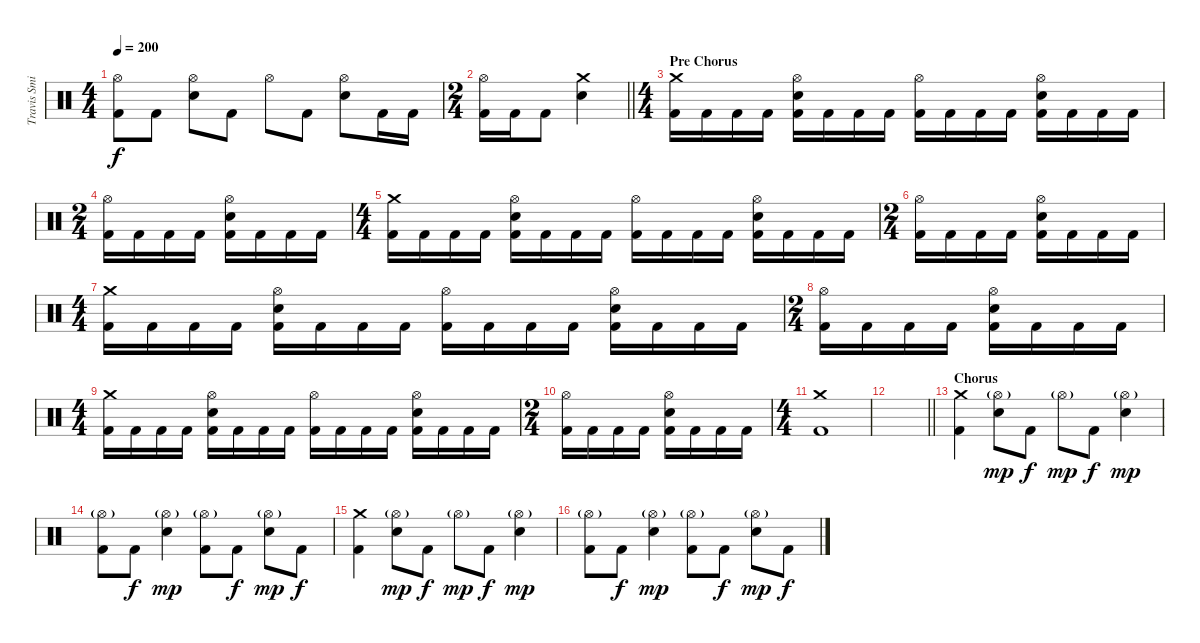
\track ("Travis Smith" "Travis Smi") {instrument percussion}
\staff {score}
\articulation defaults
\ts (4 4)
\tempo 200
\clef neutral
\ks c
("Hi-Hat (open)" "Kick (hit) 2").8{dy f} "Kick (hit) 2".8 ("Hi-Hat (open)" "Electric Snare (hit)").8 "Kick (hit) 2".8 "Hi-Hat (open)".8 "Kick (hit) 2".8 ("Hi-Hat (open)" "Electric Snare (hit)").8 "Kick (hit) 2".16 "Kick (hit) 2".16 |
\ts (2 4)
\barLineRight lightlight
("Hi-Hat (open)" "Kick (hit) 2").16 "Kick (hit) 2".16 "Kick (hit) 2".8 ("Crash medium (hit)" "Electric Snare (hit)").4 |
\ts (4 4)
\section ("" "Pre Chorus")
("Crash medium (hit)" "Kick (hit) 2").16{volume 16} "Kick (hit) 2".16 "Kick (hit) 2".16 "Kick (hit) 2".16 ("Hi-Hat (open)" "Electric Snare (hit)" "Kick (hit) 2").16 "Kick (hit) 2".16 "Kick (hit) 2".16 "Kick (hit) 2".16 ("Hi-Hat (open)" "Kick (hit) 2").16 "Kick (hit) 2".16 "Kick (hit) 2".16 "Kick (hit) 2".16 ("Hi-Hat (open)" "Electric Snare (hit)" "Kick (hit) 2").16 "Kick (hit) 2".16 "Kick (hit) 2".16 "Kick (hit) 2".16 |
\ts (2 4)
("Hi-Hat (open)" "Kick (hit) 2").16 "Kick (hit) 2".16 "Kick (hit) 2".16 "Kick (hit) 2".16 ("Hi-Hat (open)" "Electric Snare (hit)" "Kick (hit) 2").16 "Kick (hit) 2".16 "Kick (hit) 2".16 "Kick (hit) 2".16 |
\ts (4 4)
("Crash medium (hit)" "Kick (hit) 2").16{volume 16} "Kick (hit) 2".16 "Kick (hit) 2".16 "Kick (hit) 2".16 ("Hi-Hat (open)" "Electric Snare (hit)" "Kick (hit) 2").16 "Kick (hit) 2".16 "Kick (hit) 2".16 "Kick (hit) 2".16 ("Hi-Hat (open)" "Kick (hit) 2").16 "Kick (hit) 2".16 "Kick (hit) 2".16 "Kick (hit) 2".16 ("Hi-Hat (open)" "Electric Snare (hit)" "Kick (hit) 2").16 "Kick (hit) 2".16 "Kick (hit) 2".16 "Kick (hit) 2".16 |
\ts (2 4)
("Hi-Hat (open)" "Kick (hit) 2").16 "Kick (hit) 2".16 "Kick (hit) 2".16 "Kick (hit) 2".16 ("Hi-Hat (open)" "Electric Snare (hit)" "Kick (hit) 2").16 "Kick (hit) 2".16 "Kick (hit) 2".16 "Kick (hit) 2".16 |
\ts (4 4)
("Crash medium (hit)" "Kick (hit) 2").16{volume 16} "Kick (hit) 2".16 "Kick (hit) 2".16 "Kick (hit) 2".16 ("Hi-Hat (open)" "Electric Snare (hit)" "Kick (hit) 2").16 "Kick (hit) 2".16 "Kick (hit) 2".16 "Kick (hit) 2".16 ("Hi-Hat (open)" "Kick (hit) 2").16 "Kick (hit) 2".16 "Kick (hit) 2".16 "Kick (hit) 2".16 ("Hi-Hat (open)" "Electric Snare (hit)" "Kick (hit) 2").16 "Kick (hit) 2".16 "Kick (hit) 2".16 "Kick (hit) 2".16 |
\ts (2 4)
("Hi-Hat (open)" "Kick (hit) 2").16 "Kick (hit) 2".16 "Kick (hit) 2".16 "Kick (hit) 2".16 ("Hi-Hat (open)" "Electric Snare (hit)" "Kick (hit) 2").16 "Kick (hit) 2".16 "Kick (hit) 2".16 "Kick (hit) 2".16 |
\ts (4 4)
("Crash medium (hit)" "Kick (hit) 2").16{volume 16} "Kick (hit) 2".16 "Kick (hit) 2".16 "Kick (hit) 2".16 ("Hi-Hat (open)" "Electric Snare (hit)" "Kick (hit) 2").16 "Kick (hit) 2".16 "Kick (hit) 2".16 "Kick (hit) 2".16 ("Hi-Hat (open)" "Kick (hit) 2").16 "Kick (hit) 2".16 "Kick (hit) 2".16 "Kick (hit) 2".16 ("Hi-Hat (open)" "Electric Snare (hit)" "Kick (hit) 2").16 "Kick (hit) 2".16 "Kick (hit) 2".16 "Kick (hit) 2".16 |
\ts (2 4)
("Hi-Hat (open)" "Kick (hit) 2").16 "Kick (hit) 2".16 "Kick (hit) 2".16 "Kick (hit) 2".16 ("Hi-Hat (open)" "Electric Snare (hit)" "Kick (hit) 2").16 "Kick (hit) 2".16 "Kick (hit) 2".16 "Kick (hit) 2".16 |
\ts (4 4)
("Crash medium (hit)" "Kick (hit) 2").1 |
\barLineRight lightlight
|
\section ("" "Chorus")
("Crash medium (hit)" "Kick (hit) 2").4 ("Hi-Hat (open)"{g} "Electric Snare (hit)").8{dy mp} "Kick (hit) 2".8{dy f} "Hi-Hat (open)"{g}.8{dy mp} "Kick (hit) 2".8{dy f} ("Hi-Hat (open)"{g} "Electric Snare (hit)").4{dy mp} |
("Hi-Hat (open)"{g} "Kick (hit) 2").8 "Kick (hit) 2".8{dy f} ("Hi-Hat (open)"{g} "Electric Snare (hit)").4{dy mp} ("Hi-Hat (open)"{g} "Kick (hit) 2").8 "Kick (hit) 2".8{dy f} ("Hi-Hat (open)"{g} "Electric Snare (hit)").8{dy mp} "Kick (hit) 2".8{dy f} |
("Crash medium (hit)" "Kick (hit) 2").4 ("Hi-Hat (open)"{g} "Electric Snare (hit)").8{dy mp} "Kick (hit) 2".8{dy f} "Hi-Hat (open)"{g}.8{dy mp} "Kick (hit) 2".8{dy f} ("Hi-Hat (open)"{g} "Electric Snare (hit)").4{dy mp} |
("Hi-Hat (open)"{g} "Kick (hit) 2").8 "Kick (hit) 2".8{dy f} ("Hi-Hat (open)"{g} "Electric Snare (hit)").4{dy mp} ("Hi-Hat (open)"{g} "Kick (hit) 2").8 "Kick (hit) 2".8{dy f} ("Hi-Hat (open)"{g} "Electric Snare (hit)").8{dy mp} "Kick (hit) 2".8{dy f}
